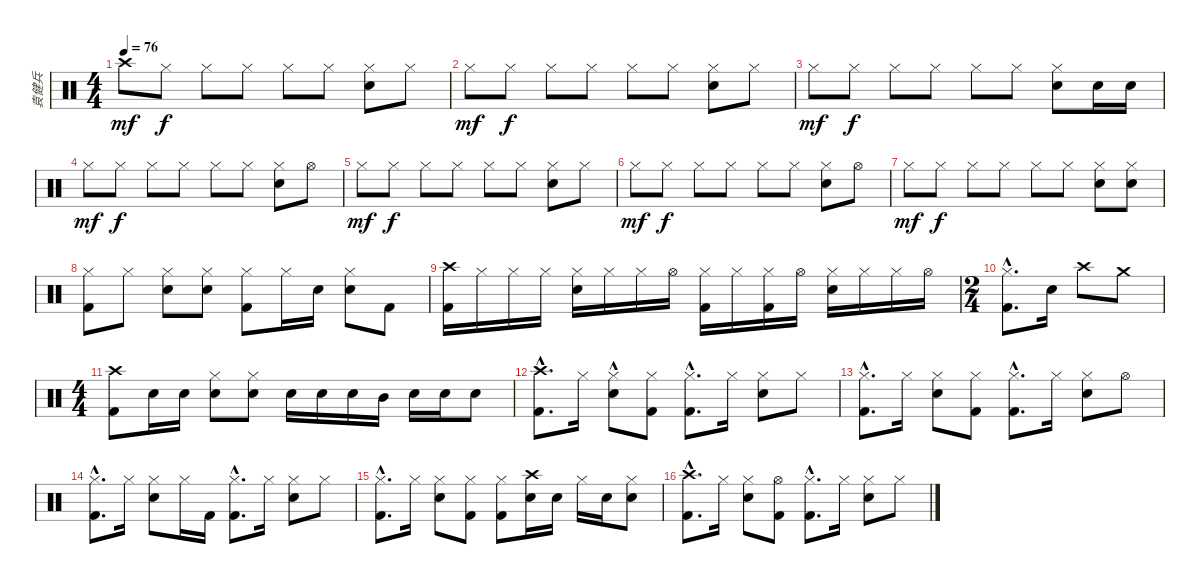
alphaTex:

\track ("袁健兵" "袁健兵") {instrument percussion}
\staff {score}
\articulation defaults
\ts (4 4)
\tempo 76
\clef neutral
\ks c "Crash high (hit)".8{dy mf} "Hi-Hat (closed)".8{dy f} "Hi-Hat (closed)".8 "Hi-Hat (closed)".8 "Hi-Hat (closed)".8 "Hi-Hat (closed)".8
("Hi-Hat (closed)" "Snare (hit) 2").8 "Hi-Hat (closed)".8 |
"Hi-Hat (closed)".8{dy mf} "Hi-Hat (closed)".8{dy f} "Hi-Hat (closed)".8 "Hi-Hat (closed)".8 "Hi-Hat (closed)".8 "Hi-Hat (closed)".8 ("Hi-Hat (closed)" "Snare (hit) 2").8 "Hi-Hat (closed)".8 |
"Hi-Hat (closed)".8{dy mf} "Hi-Hat (closed)".8{dy f} "Hi-Hat (closed)".8 "Hi-Hat (closed)".8 "Hi-Hat (closed)".8 "Hi-Hat (closed)".8 ("Hi-Hat (closed)" "Snare (hit) 2").8 "Snare (hit) 2".16 "Snare (hit) 2".16 |
"Hi-Hat (closed)".8{dy mf} "Hi-Hat (closed)".8{dy f} "Hi-Hat (closed)".8 "Hi-Hat (closed)".8 "Hi-Hat (closed)".8 "Hi-Hat (closed)".8 ("Hi-Hat (closed)" "Snare (hit) 2").8 "Hi-Hat (open)".8 |
"Hi-Hat (closed)".8{dy mf} "Hi-Hat (closed)".8{dy f} "Hi-Hat (closed)".8 "Hi-Hat (closed)".8 "Hi-Hat (closed)".8 "Hi-Hat (closed)".8 ("Hi-Hat (closed)" "Snare (hit) 2").8 "Hi-Hat (closed)".8 |
"Hi-Hat (closed)".8{dy mf} "Hi-Hat (closed)".8{dy f} "Hi-Hat (closed)".8 "Hi-Hat (closed)".8 "Hi-Hat (closed)".8 "Hi-Hat (closed)".8 ("Hi-Hat (closed)" "Snare (hit) 2").8 "Hi-Hat (open)".8 |
"Hi-Hat (closed)".8{dy mf} "Hi-Hat (closed)".8{dy f} "Hi-Hat (closed)".8 "Hi-Hat (closed)".8 "Hi-Hat (closed)".8 "Hi-Hat (closed)".8 ("Hi-Hat (closed)" "Snare (hit) 2").8 ("Hi-Hat (closed)" "Snare (hit) 2").8 |
("Hi-Hat (closed)" "Kick (hit) 2").8 "Hi-Hat (closed)".8 ("Hi-Hat (closed)" "Snare (hit) 2").8 ("Hi-Hat (closed)" "Snare (hit) 2").8 ("Hi-Hat (closed)" "Kick (hit) 2").8 "Hi-Hat (closed)".16 "Snare (hit) 2".16 ("Hi-Hat (closed)" "Snare (hit) 2").8 "Kick (hit) 2".8 |
("Crash high (hit)" "Kick (hit) 2").16 "Hi-Hat (closed)".16 "Hi-Hat (closed)".16 "Hi-Hat (closed)".16 ("Hi-Hat (closed)" "Snare (hit) 2").16 "Hi-Hat (closed)".16 "Hi-Hat (closed)".16 "Hi-Hat (open)".16 ("Hi-Hat (closed)" "Kick (hit) 2").16 "Hi-Hat (closed)".16 ("Hi-Hat (closed)" "Kick (hit) 2").16 "Hi-Hat (open)".16 ("Hi-Hat (closed)" "Snare (hit) 2").16 "Hi-Hat (closed)".16 "Hi-Hat (closed)".16 "Hi-Hat (open)".16 |
\ts (2 4)
("Hi-Hat (closed)"{hac} "Kick (hit) 2"{hac}).8{d} "Snare (hit) 2".16 "Crash high (hit)".8 "Crash medium (hit)".8 |
\ts (4 4)
("Crash high (hit)" "Kick (hit) 2").8 "Snare (hit) 2".16 "Snare (hit) 2".16 ("Hi-Hat (closed)" "Snare (hit) 2").8 ("Hi-Hat (closed)" "Snare (hit) 2").8 "Snare (hit) 2".16 "Snare (hit) 2".16 "Snare (hit) 2".16 "Mid Tom (hit)".16 "Snare (hit) 2".16 "Snare (hit) 2".16 "Snare (hit) 2".8 |
("Crash high (hit)"{hac} "Kick (hit) 2"{hac}).8{d} "Hi-Hat (closed)".16 ("Hi-Hat (closed)" "Snare (hit) 2"{hac}).8 ("Hi-Hat (closed)" "Kick (hit) 2").8 ("Hi-Hat (closed)"{hac} "Kick (hit) 2"{hac}).8{d} "Hi-Hat (closed)".16 ("Hi-Hat (closed)" "Snare (hit) 2").8 "Hi-Hat (closed)".8 |
("Hi-Hat (closed)"{hac} "Kick (hit) 2"{hac}).8{d} "Hi-Hat (closed)".16 ("Hi-Hat (closed)" "Snare (hit) 2").8 ("Hi-Hat (closed)" "Kick (hit) 2").8 ("Hi-Hat (closed)"{hac} "Kick (hit) 2"{hac}).8{d} "Hi-Hat (closed)".16 ("Hi-Hat (closed)" "Snare (hit) 2").8 "Hi-Hat (open)".8 |
("Hi-Hat (closed)"{hac} "Kick (hit) 2"{hac}).8{d} "Hi-Hat (closed)".16 ("Hi-Hat (closed)" "Snare (hit) 2").8 "Hi-Hat (closed)".16 "Kick (hit) 2".16 ("Hi-Hat (closed)"{hac} "Kick (hit) 2"{hac}).8{d} "Hi-Hat (closed)".16 ("Hi-Hat (closed)" "Snare (hit) 2").8 "Hi-Hat (closed)".8 |
("Hi-Hat (closed)"{hac} "Kick (hit) 2"{hac}).8{d} "Hi-Hat (closed)".16 ("Hi-Hat (closed)" "Snare (hit) 2").8 ("Hi-Hat (closed)" "Kick (hit) 2").8 ("Hi-Hat (closed)" "Kick (hit) 2").8 ("Crash high (hit)" "Snare (hit) 2").16 "Snare (hit) 2".16 "Hi-Hat (closed)".16 "Snare (hit) 2".16 ("Hi-Hat (closed)" "Snare (hit) 2").8 |
("Crash high (hit)"{hac} "Kick (hit) 2"{hac}).8{d} "Hi-Hat (closed)".16 ("Hi-Hat (closed)" "Snare (hit) 2").8 ("Hi-Hat (open)" "Kick (hit) 2").8 ("Hi-Hat (closed)"{hac} "Kick (hit) 2"{hac}).8{d} "Hi-Hat (closed)".16 ("Hi-Hat (closed)" "Snare (hit) 2").8 "Hi-Hat (closed)".8
